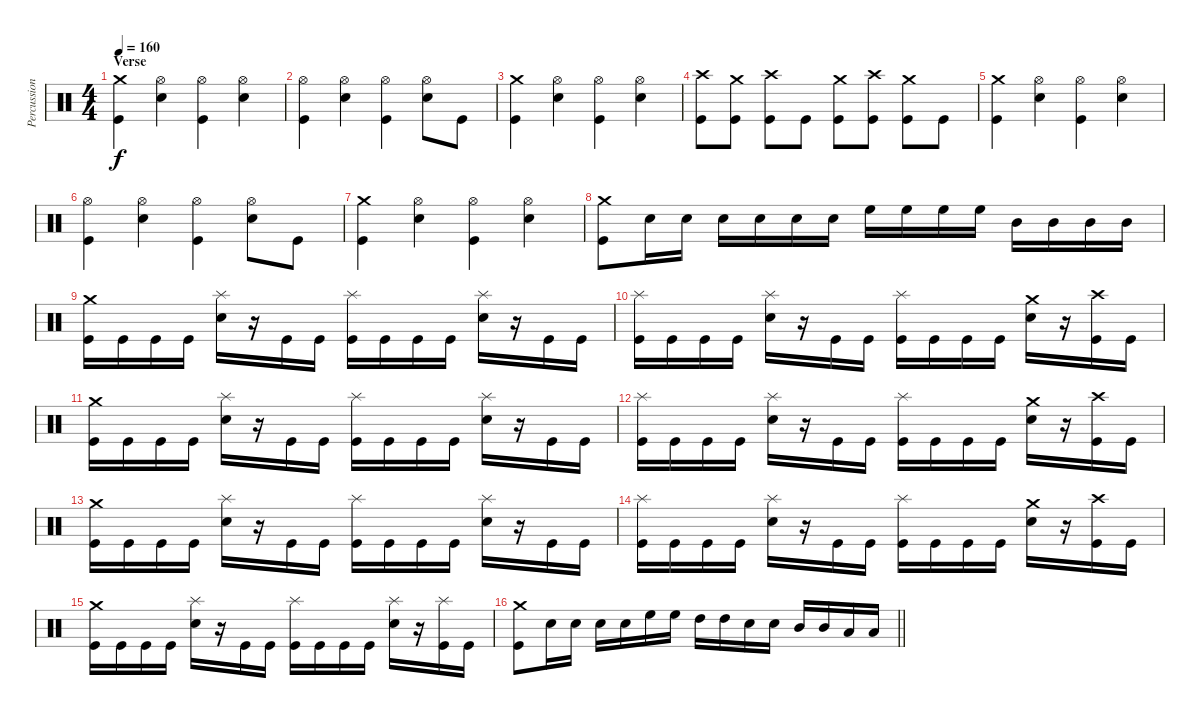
\track ("Percussion" "Percussion") {instrument percussion}
\staff {score}
\articulation defaults
\ts (4 4)
\section ("" "Verse")
\tempo 160
\clef neutral
\ks c
("Crash medium (hit)" "Kick (hit)").4{dy f} ("Hi-Hat (open)" "Snare (hit) 2").4 ("Hi-Hat (open)" "Kick (hit)").4 ("Hi-Hat (open)" "Snare (hit) 2").4 |
("Hi-Hat (open)" "Kick (hit)").4 ("Hi-Hat (open)" "Snare (hit) 2").4 ("Hi-Hat (open)" "Kick (hit)").4 ("Hi-Hat (open)" "Snare (hit) 2").8 "Kick (hit)".8 |
("Crash medium (hit)" "Kick (hit)").4 ("Hi-Hat (open)" "Snare (hit) 2").4 ("Hi-Hat (open)" "Kick (hit)").4 ("Hi-Hat (open)" "Snare (hit) 2").4 |
("Crash high (hit)" "Kick (hit)").8 ("Crash medium (hit)" "Kick (hit)").8 ("Crash high (hit)" "Kick (hit)").8 "Kick (hit)".8 ("Crash medium (hit)" "Kick (hit)").8 ("Crash high (hit)" "Kick (hit)").8 ("Crash medium (hit)" "Kick (hit)").8 "Kick (hit)".8 |
("Crash medium (hit)" "Kick (hit)").4 ("Hi-Hat (open)" "Snare (hit) 2").4 ("Hi-Hat (open)" "Kick (hit)").4 ("Hi-Hat (open)" "Snare (hit) 2").4 |
("Hi-Hat (open)" "Kick (hit)").4 ("Hi-Hat (open)" "Snare (hit) 2").4 ("Hi-Hat (open)" "Kick (hit)").4 ("Hi-Hat (open)" "Snare (hit) 2").8 "Kick (hit)".8 |
("Crash medium (hit)" "Kick (hit)").4 ("Hi-Hat (open)" "Snare (hit) 2").4 ("Hi-Hat (open)" "Kick (hit)").4 ("Hi-Hat (open)" "Snare (hit) 2").4 |
("Crash medium (hit)" "Kick (hit)").8 "Snare (hit) 2".16 "Snare (hit) 2".16 "Snare (hit) 2".16 "Snare (hit) 2".16 "Snare (hit) 2".16 "Snare (hit) 2".16 "High Floor Tom (hit)".16 "High Floor Tom (hit)".16 "High Floor Tom (hit)".16 "High Floor Tom (hit)".16 "Mid Tom (hit)".16 "Mid Tom (hit)".16 "Mid Tom (hit)".16 "Mid Tom (hit)".16 |
("Crash medium (hit)" "Kick (hit)").16 "Kick (hit)".16 "Kick (hit)".16 "Kick (hit)".16 ("Splash (hit)" "Snare (hit) 2").16 r.16 "Kick (hit)".16 "Kick (hit)".16 ("Splash (hit)" "Kick (hit)").16 "Kick (hit)".16 "Kick (hit)".16 "Kick (hit)".16 ("Splash (hit)" "Snare (hit) 2").16 r.16 "Kick (hit)".16 "Kick (hit)".16 |
("Splash (hit)" "Kick (hit)").16 "Kick (hit)".16 "Kick (hit)".16 "Kick (hit)".16 ("Splash (hit)" "Snare (hit) 2").16 r.16 "Kick (hit)".16 "Kick (hit)".16 ("Splash (hit)" "Kick (hit)").16 "Kick (hit)".16 "Kick (hit)".16 "Kick (hit)".16 ("Crash medium (hit)" "Snare (hit) 2").16 r.16 ("Crash high (hit)" "Kick (hit)").16 "Kick (hit)".16 |
("Crash medium (hit)" "Kick (hit)").16 "Kick (hit)".16 "Kick (hit)".16 "Kick (hit)".16 ("Splash (hit)" "Snare (hit) 2").16 r.16 "Kick (hit)".16 "Kick (hit)".16 ("Splash (hit)" "Kick (hit)").16 "Kick (hit)".16 "Kick (hit)".16 "Kick (hit)".16 ("Splash (hit)" "Snare (hit) 2").16 r.16 "Kick (hit)".16 "Kick (hit)".16 |
("Splash (hit)" "Kick (hit)").16 "Kick (hit)".16 "Kick (hit)".16 "Kick (hit)".16 ("Splash (hit)" "Snare (hit) 2").16 r.16 "Kick (hit)".16 "Kick (hit)".16 ("Splash (hit)" "Kick (hit)").16 "Kick (hit)".16 "Kick (hit)".16 "Kick (hit)".16 ("Crash medium (hit)" "Snare (hit) 2").16 r.16 ("Crash high (hit)" "Kick (hit)").16 "Kick (hit)".16 |
("Crash medium (hit)" "Kick (hit)").16 "Kick (hit)".16 "Kick (hit)".16 "Kick (hit)".16 ("Splash (hit)" "Snare (hit) 2").16 r.16 "Kick (hit)".16 "Kick (hit)".16 ("Splash (hit)" "Kick (hit)").16 "Kick (hit)".16 "Kick (hit)".16 "Kick (hit)".16 ("Splash (hit)" "Snare (hit) 2").16 r.16 "Kick (hit)".16 "Kick (hit)".16 |
("Splash (hit)" "Kick (hit)").16 "Kick (hit)".16 "Kick (hit)".16 "Kick (hit)".16 ("Splash (hit)" "Snare (hit) 2").16 r.16 "Kick (hit)".16 "Kick (hit)".16 ("Splash (hit)" "Kick (hit)").16 "Kick (hit)".16 "Kick (hit)".16 "Kick (hit)".16 ("Crash medium (hit)" "Snare (hit) 2").16 r.16 ("Crash high (hit)" "Kick (hit)").16 "Kick (hit)".16 |
("Crash medium (hit)" "Kick (hit)").16 "Kick (hit)".16 "Kick (hit)".16 "Kick (hit)".16 ("Splash (hit)" "Snare (hit) 2").16 r.16 "Kick (hit)".16 "Kick (hit)".16 ("Splash (hit)" "Kick (hit)").16 "Kick (hit)".16 "Kick (hit)".16 "Kick (hit)".16 ("Splash (hit)" "Snare (hit) 2").16 r.16 ("Splash (hit)" "Kick (hit)").16 "Kick (hit)".16 |
\barLineRight lightlight
("Crash medium (hit)" "Kick (hit)").8 "Snare (hit) 2".16 "Snare (hit) 2".16 "Snare (hit) 2".16 "Snare (hit) 2".16 "High Floor Tom (hit)".16 "High Floor Tom (hit)".16 "High Tom (hit)".16 "High Tom (hit)".16 "Snare (hit) 2".16 "Snare (hit) 2".16 "Mid Tom (hit)".16 "Mid Tom (hit)".16 "Low Tom (hit)".16 "Low Tom (hit)".16
